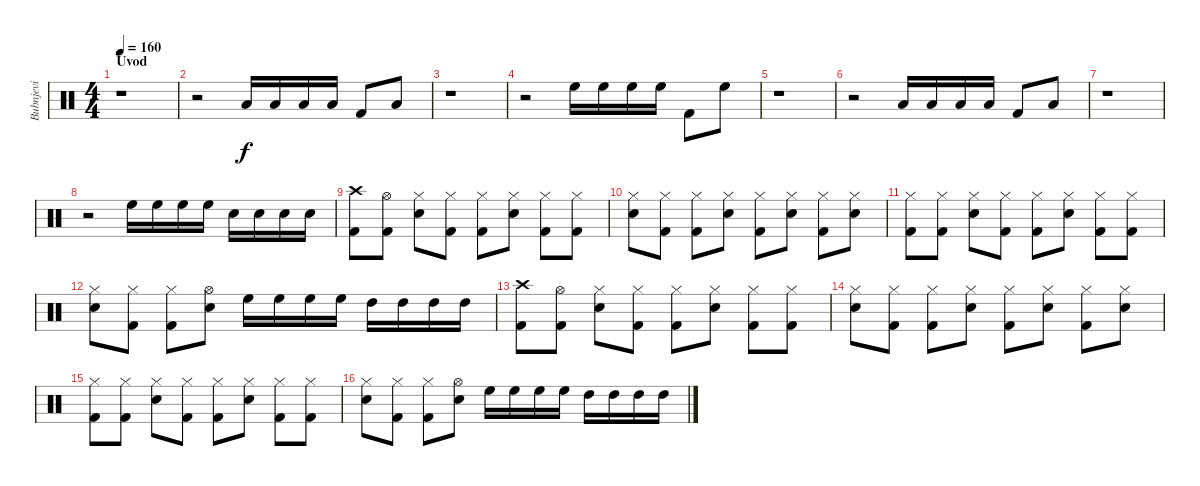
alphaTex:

\track ("Bubnjevi" "Bubnjevi") {instrument percussion}
\staff {score}
\articulation defaults
\ts (4 4)
\section ("" "Uvod")
\tempo 160
\clef neutral
\ks c
r.1{dy f} |
r.2 "Low Tom (hit)".16 "Low Tom (hit)".16 "Low Tom (hit)".16 "Low Tom (hit)".16 "Kick (hit) 2".8 "Low Tom (hit)".8 |
r.1 |
r.2 "High Floor Tom (hit)".16 "High Floor Tom (hit)".16 "High Floor Tom (hit)".16 "High Floor Tom (hit)".16 "Kick (hit) 2".8 "High Floor Tom (hit)".8 |
r.1 |
r.2 "Low Tom (hit)".16 "Low Tom (hit)".16 "Low Tom (hit)".16 "Low Tom (hit)".16 "Kick (hit) 2".8 "Low Tom (hit)".8 |
r.1 |
r.2 "High Floor Tom (hit)".16 "High Floor Tom (hit)".16 "High Floor Tom (hit)".16 "High Floor Tom (hit)".16 "Snare (hit) 2".16 "Snare (hit) 2".16 "Snare (hit) 2".16 "Snare (hit) 2".16 |
("Crash high (hit)" "Kick (hit) 2").8 ("Hi-Hat (open)" "Kick (hit) 2").8 ("Hi-Hat (closed)" "Snare (hit) 2").8 ("Hi-Hat (closed)" "Kick (hit) 2").8 ("Hi-Hat (closed)" "Kick (hit) 2").8 ("Hi-Hat (closed)" "Snare (hit) 2").8 ("Hi-Hat (closed)" "Kick (hit) 2").8 ("Hi-Hat (closed)" "Kick (hit) 2").8 |
("Hi-Hat (closed)" "Snare (hit) 2").8 ("Hi-Hat (closed)" "Kick (hit) 2").8 ("Hi-Hat (closed)" "Kick (hit) 2").8 ("Hi-Hat (closed)" "Snare (hit) 2").8 ("Hi-Hat (closed)" "Kick (hit) 2").8 ("Hi-Hat (closed)" "Snare (hit) 2").8 ("Hi-Hat (closed)" "Kick (hit) 2").8 ("Hi-Hat (closed)" "Snare (hit) 2").8 |
("Hi-Hat (closed)" "Kick (hit) 2").8 ("Hi-Hat (closed)" "Kick (hit) 2").8 ("Hi-Hat (closed)" "Snare (hit) 2").8 ("Hi-Hat (closed)" "Kick (hit) 2").8 ("Hi-Hat (closed)" "Kick (hit) 2").8 ("Hi-Hat (closed)" "Snare (hit) 2").8 ("Hi-Hat (closed)" "Kick (hit) 2").8 ("Hi-Hat (closed)" "Kick (hit) 2").8 |
("Hi-Hat (closed)" "Snare (hit) 2").8 ("Hi-Hat (closed)" "Kick (hit) 2").8 ("Hi-Hat (closed)" "Kick (hit) 2").8 ("Hi-Hat (open)" "Snare (hit) 2").8 "High Floor Tom (hit)".16 "High Floor Tom (hit)".16 "High Floor Tom (hit)".16 "High Floor Tom (hit)".16 "High Tom (hit)".16 "High Tom (hit)".16 "High Tom (hit)".16 "High Tom (hit)".16 |
("Crash high (hit)" "Kick (hit) 2").8 ("Hi-Hat (open)" "Kick (hit) 2").8 ("Hi-Hat (closed)" "Snare (hit) 2").8 ("Hi-Hat (closed)" "Kick (hit) 2").8 ("Hi-Hat (closed)" "Kick (hit) 2").8 ("Hi-Hat (closed)" "Snare (hit) 2").8 ("Hi-Hat (closed)" "Kick (hit) 2").8 ("Hi-Hat (closed)" "Kick (hit) 2").8 |
("Hi-Hat (closed)" "Snare (hit) 2").8 ("Hi-Hat (closed)" "Kick (hit) 2").8 ("Hi-Hat (closed)" "Kick (hit) 2").8 ("Hi-Hat (closed)" "Snare (hit) 2").8 ("Hi-Hat (closed)" "Kick (hit) 2").8 ("Hi-Hat (closed)" "Snare (hit) 2").8 ("Hi-Hat (closed)" "Kick (hit) 2").8 ("Hi-Hat (closed)" "Snare (hit) 2").8 |
("Hi-Hat (closed)" "Kick (hit) 2").8 ("Hi-Hat (closed)" "Kick (hit) 2").8 ("Hi-Hat (closed)" "Snare (hit) 2").8 ("Hi-Hat (closed)" "Kick (hit) 2").8 ("Hi-Hat (closed)" "Kick (hit) 2").8 ("Hi-Hat (closed)" "Snare (hit) 2").8 ("Hi-Hat (closed)" "Kick (hit) 2").8 ("Hi-Hat (closed)" "Kick (hit) 2").8 |
("Hi-Hat (closed)" "Snare (hit) 2").8 ("Hi-Hat (closed)" "Kick (hit) 2").8 ("Hi-Hat (closed)" "Kick (hit) 2").8 ("Hi-Hat (open)" "Snare (hit) 2").8 "High Floor Tom (hit)".16 "High Floor Tom (hit)".16 "High Floor Tom (hit)".16 "High Floor Tom (hit)".16 "High Tom (hit)".16 "High Tom (hit)".16 "High Tom (hit)".16 "High Tom (hit)".16
